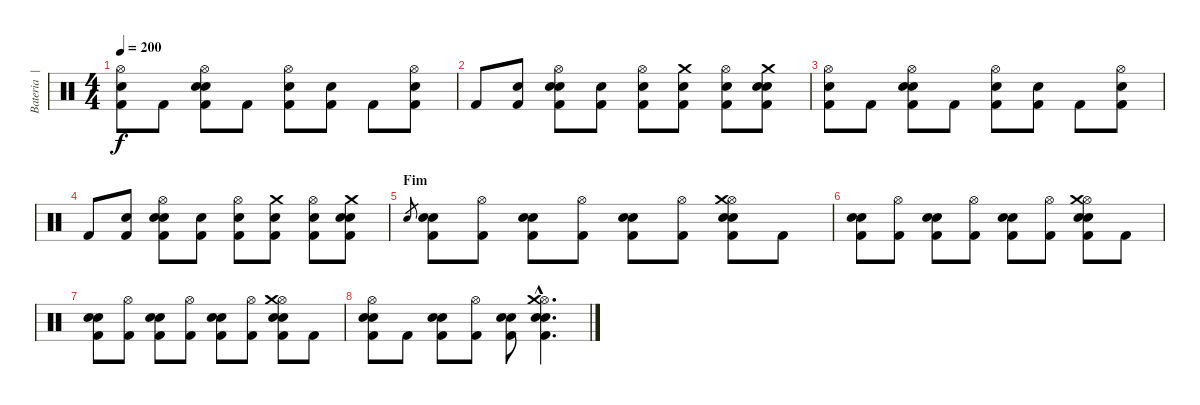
\track ("Bateria  | Nô" "Bateria  |") {instrument percussion}
\staff {score}
\articulation defaults
\ts (4 4)
\tempo 200
\clef neutral
\ks c
("Hi-Hat (open)" "Electric Snare (hit)" "Kick (hit) 2").8{dy f} "Kick (hit) 2".8 ("Hi-Hat (open)" "Snare (hit) 2" "Electric Snare (hit)" "Kick (hit) 2").8 "Kick (hit) 2".8 ("Hi-Hat (open)" "Electric Snare (hit)" "Kick (hit) 2").8 ("Electric Snare (hit)" "Kick (hit) 2").8 "Kick (hit) 2".8 ("Hi-Hat (open)" "Snare (hit) 2" "Kick (hit) 2").8 |
"Kick (hit) 2".8 ("Electric Snare (hit)" "Kick (hit) 2").8 ("Hi-Hat (open)" "Electric Snare (hit)" "Snare (hit) 2" "Kick (hit) 2").8 ("Electric Snare (hit)" "Kick (hit) 2").8 ("Hi-Hat (open)" "Electric Snare (hit)" "Kick (hit) 2").8 ("Crash medium (hit)" "Electric Snare (hit)" "Kick (hit) 2").8 ("Hi-Hat (open)" "Electric Snare (hit)" "Kick (hit) 2").8 ("Crash medium (hit)" "Snare (hit) 2" "Electric Snare (hit)" "Kick (hit) 2").8 |
("Hi-Hat (open)" "Electric Snare (hit)" "Kick (hit) 2").8 "Kick (hit) 2".8 ("Hi-Hat (open)" "Snare (hit) 2" "Electric Snare (hit)" "Kick (hit) 2").8 "Kick (hit) 2".8 ("Hi-Hat (open)" "Electric Snare (hit)" "Kick (hit) 2").8 ("Electric Snare (hit)" "Kick (hit) 2").8 "Kick (hit) 2".8 ("Hi-Hat (open)" "Snare (hit) 2" "Kick (hit) 2").8 |
"Kick (hit) 2".8 ("Electric Snare (hit)" "Kick (hit) 2").8 ("Hi-Hat (open)" "Electric Snare (hit)" "Snare (hit) 2" "Kick (hit) 2").8 ("Electric Snare (hit)" "Kick (hit) 2").8 ("Hi-Hat (open)" "Electric Snare (hit)" "Kick (hit) 2").8 ("Crash medium (hit)" "Electric Snare (hit)" "Kick (hit) 2").8 ("Hi-Hat (open)" "Electric Snare (hit)" "Kick (hit) 2").8 ("Crash medium (hit)" "Snare (hit) 2" "Electric Snare (hit)" "Kick (hit) 2").8 |
\section ("" "Fim")
"Electric Snare (hit)".8{gr} ("Snare (hit) 2" "Electric Snare (hit)" "Kick (hit) 2").8 ("Hi-Hat (open)" "Kick (hit) 2").8 ("Snare (hit) 2" "Electric Snare (hit)" "Kick (hit) 2").8 ("Hi-Hat (open)" "Kick (hit) 2").8 ("Snare (hit) 2" "Electric Snare (hit)" "Kick (hit) 2").8 ("Hi-Hat (open)" "Kick (hit) 2").8 ("Hi-Hat (open)" "Crash medium (hit)" "Snare (hit) 2" "Electric Snare (hit)" "Kick (hit) 2").8 "Kick (hit) 2".8 |
("Snare (hit) 2" "Electric Snare (hit)" "Kick (hit) 2").8 ("Hi-Hat (open)" "Kick (hit) 2").8 ("Snare (hit) 2" "Electric Snare (hit)" "Kick (hit) 2").8 ("Hi-Hat (open)" "Kick (hit) 2").8 ("Snare (hit) 2" "Electric Snare (hit)" "Kick (hit) 2").8 ("Hi-Hat (open)" "Kick (hit) 2").8 ("Hi-Hat (open)" "Crash medium (hit)" "Snare (hit) 2" "Electric Snare (hit)" "Kick (hit) 2").8 "Kick (hit) 2".8 |
("Snare (hit) 2" "Electric Snare (hit)" "Kick (hit) 2").8 ("Hi-Hat (open)" "Kick (hit) 2").8 ("Snare (hit) 2" "Electric Snare (hit)" "Kick (hit) 2").8 ("Hi-Hat (open)" "Kick (hit) 2").8 ("Snare (hit) 2" "Electric Snare (hit)" "Kick (hit) 2").8 ("Hi-Hat (open)" "Kick (hit) 2").8 ("Hi-Hat (open)" "Crash medium (hit)" "Snare (hit) 2" "Electric Snare (hit)" "Kick (hit) 2").8 "Kick (hit) 2".8 |
("Hi-Hat (open)" "Snare (hit) 2" "Electric Snare (hit)" "Kick (hit) 2").8 "Kick (hit) 2".8 ("Snare (hit) 2" "Electric Snare (hit)" "Kick (hit) 2").8 ("Hi-Hat (open)" "Kick (hit) 2").8 ("Snare (hit) 2" "Electric Snare (hit)" "Kick (hit) 2").8 ("Hi-Hat (open)"{hac} "Crash medium (hit)"{hac} "Snare (hit) 2"{hac} "Electric Snare (hit)"{hac} "Kick (hit) 2"{hac}).4{d}
